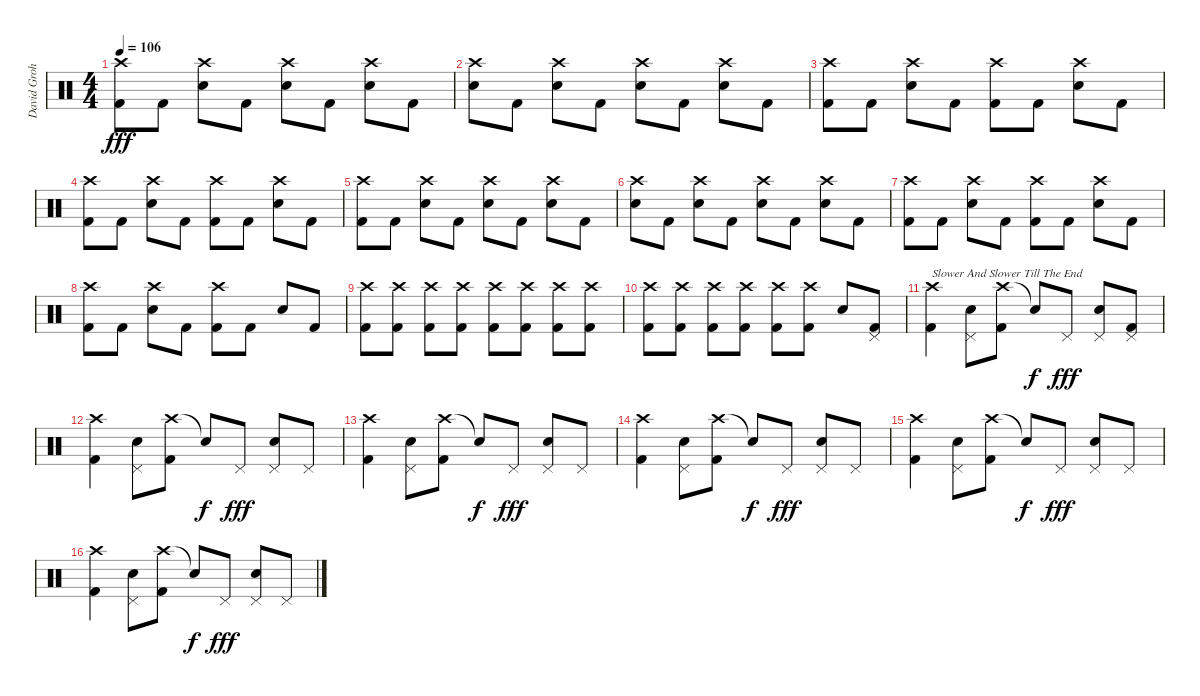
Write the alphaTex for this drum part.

\track ("David Grohl 2 Crash Style !!" "David Groh") {instrument percussion}
\staff {score}
\articulation defaults
\ts (4 4)
\tempo 106
\clef neutral
\ks c
("Crash high (hit)" "Kick (hit) 2").8{dy fff} "Kick (hit) 2".8 ("Crash high (hit)" "Snare (hit) 2").8 "Kick (hit) 2".8 ("Crash high (hit)" "Snare (hit) 2").8 "Kick (hit) 2".8 ("Crash high (hit)" "Snare (hit) 2").8 "Kick (hit) 2".8 |
("Crash high (hit)" "Snare (hit) 2").8 "Kick (hit) 2".8 ("Crash high (hit)" "Snare (hit) 2").8 "Kick (hit) 2".8 ("Crash high (hit)" "Snare (hit) 2").8 "Kick (hit) 2".8 ("Crash high (hit)" "Snare (hit) 2").8 "Kick (hit) 2".8 |
("Crash high (hit)" "Kick (hit) 2").8 "Kick (hit) 2".8 ("Crash high (hit)" "Snare (hit) 2").8 "Kick (hit) 2".8 ("Crash high (hit)" "Kick (hit) 2").8 "Kick (hit) 2".8 ("Crash high (hit)" "Snare (hit) 2").8 "Kick (hit) 2".8 |
("Crash high (hit)" "Kick (hit) 2").8 "Kick (hit) 2".8 ("Crash high (hit)" "Snare (hit) 2").8 "Kick (hit) 2".8 ("Crash high (hit)" "Kick (hit) 2").8 "Kick (hit) 2".8 ("Crash high (hit)" "Snare (hit) 2").8 "Kick (hit) 2".8 |
("Crash high (hit)" "Kick (hit) 2").8 "Kick (hit) 2".8 ("Crash high (hit)" "Snare (hit) 2").8 "Kick (hit) 2".8 ("Crash high (hit)" "Snare (hit) 2").8 "Kick (hit) 2".8 ("Crash high (hit)" "Snare (hit) 2").8 "Kick (hit) 2".8 |
("Crash high (hit)" "Snare (hit) 2").8 "Kick (hit) 2".8 ("Crash high (hit)" "Snare (hit) 2").8 "Kick (hit) 2".8 ("Crash high (hit)" "Snare (hit) 2").8 "Kick (hit) 2".8 ("Crash high (hit)" "Snare (hit) 2").8 "Kick (hit) 2".8 |
("Crash high (hit)" "Kick (hit) 2").8 "Kick (hit) 2".8 ("Crash high (hit)" "Snare (hit) 2").8 "Kick (hit) 2".8 ("Crash high (hit)" "Kick (hit) 2").8 "Kick (hit) 2".8 ("Crash high (hit)" "Snare (hit) 2").8 "Kick (hit) 2".8 |
("Crash high (hit)" "Kick (hit) 2").8 "Kick (hit) 2".8 ("Crash high (hit)" "Snare (hit) 2").8 "Kick (hit) 2".8 ("Crash high (hit)" "Kick (hit) 2").8 "Kick (hit) 2".8 "Snare (hit) 2".8 "Kick (hit) 2".8 |
("Crash high (hit)" "Kick (hit) 2").8 ("Crash high (hit)" "Kick (hit) 2").8 ("Crash high (hit)" "Kick (hit) 2").8 ("Crash high (hit)" "Kick (hit) 2").8 ("Crash high (hit)" "Kick (hit) 2").8 ("Crash high (hit)" "Kick (hit) 2").8 ("Crash high (hit)" "Kick (hit) 2").8 ("Crash high (hit)" "Kick (hit) 2").8 |
("Crash high (hit)" "Kick (hit) 2").8 ("Crash high (hit)" "Kick (hit) 2").8 ("Crash high (hit)" "Kick (hit) 2").8 ("Crash high (hit)" "Kick (hit) 2").8 ("Crash high (hit)" "Kick (hit) 2").8 ("Crash high (hit)" "Kick (hit) 2").8 "Snare (hit) 2".8 ("Pedal Hi-Hat (hit)" "Kick (hit) 2").8 |
("Crash high (hit)" "Kick (hit) 2").4{txt "Slower And Slower Till The End"} ("Pedal Hi-Hat (hit)" "Snare (hit) 2").8 ("Crash high (hit)" "Kick (hit) 2").8 "Snare (hit)"{t}.8{dy f} "Pedal Hi-Hat (hit)".8{dy fff} ("Pedal Hi-Hat (hit)" "Snare (hit) 2").8 ("Pedal Hi-Hat (hit)" "Kick (hit) 2").8 |
("Crash high (hit)" "Kick (hit) 2").4 ("Pedal Hi-Hat (hit)" "Snare (hit) 2").8 ("Crash high (hit)" "Kick (hit) 2").8 "Snare (hit)"{t}.8{dy f} "Pedal Hi-Hat (hit)".8{dy fff} ("Pedal Hi-Hat (hit)" "Snare (hit) 2").8 "Pedal Hi-Hat (hit)".8 |
("Crash high (hit)" "Kick (hit) 2").4 ("Pedal Hi-Hat (hit)" "Snare (hit) 2").8 ("Crash high (hit)" "Kick (hit) 2").8 "Snare (hit)"{t}.8{dy f} "Pedal Hi-Hat (hit)".8{dy fff} ("Pedal Hi-Hat (hit)" "Snare (hit) 2").8 "Pedal Hi-Hat (hit)".8 |
("Crash high (hit)" "Kick (hit) 2").4 ("Pedal Hi-Hat (hit)" "Snare (hit) 2").8 ("Crash high (hit)" "Kick (hit) 2").8 "Snare (hit)"{t}.8{dy f} "Pedal Hi-Hat (hit)".8{dy fff} ("Pedal Hi-Hat (hit)" "Snare (hit) 2").8 "Pedal Hi-Hat (hit)".8 |
("Crash high (hit)" "Kick (hit) 2").4 ("Pedal Hi-Hat (hit)" "Snare (hit) 2").8 ("Crash high (hit)" "Kick (hit) 2").8 "Snare (hit)"{t}.8{dy f} "Pedal Hi-Hat (hit)".8{dy fff} ("Pedal Hi-Hat (hit)" "Snare (hit) 2").8 "Pedal Hi-Hat (hit)".8 |
("Crash high (hit)" "Kick (hit) 2").4 ("Pedal Hi-Hat (hit)" "Snare (hit) 2").8 ("Crash high (hit)" "Kick (hit) 2").8 "Snare (hit)"{t}.8{dy f} "Pedal Hi-Hat (hit)".8{dy fff} ("Pedal Hi-Hat (hit)" "Snare (hit) 2").8 "Pedal Hi-Hat (hit)".8
